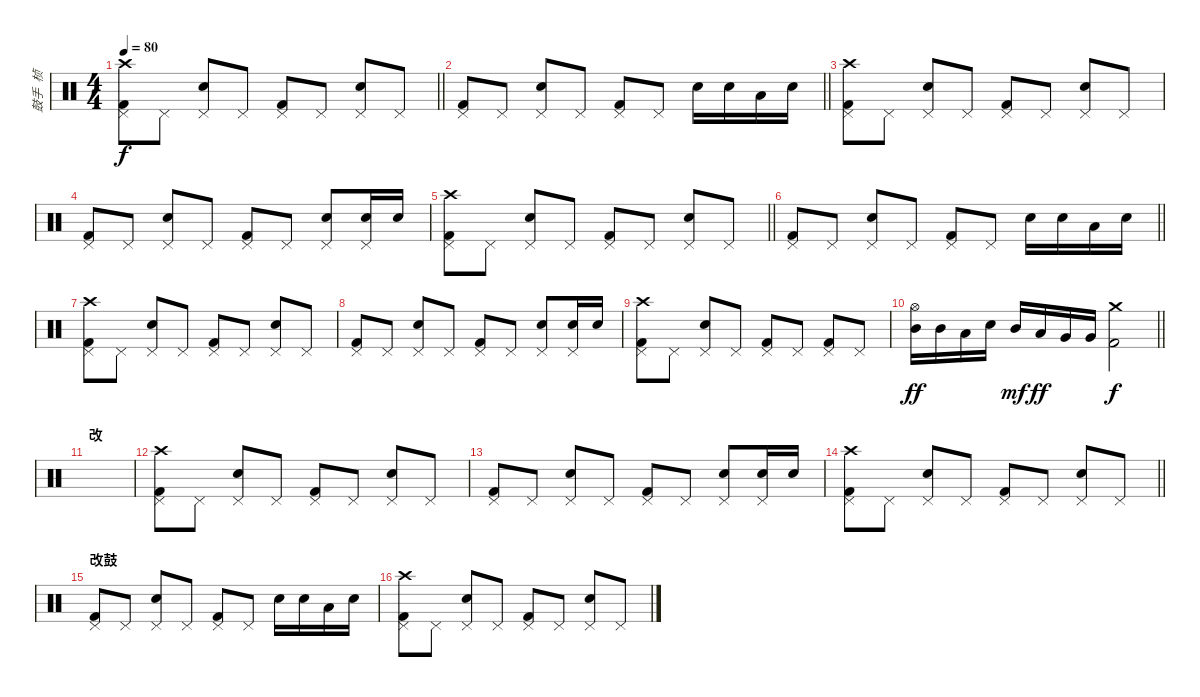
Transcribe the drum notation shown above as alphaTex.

\track ("鼓手  桢" "鼓手  桢") {instrument percussion}
\staff {score}
\articulation defaults
\ts (4 4)
\tempo 80
\clef neutral
\barLineRight lightlight
\ks c
("Pedal Hi-Hat (hit)" "Kick (hit) 2" "Crash high (hit)").8{dy f} "Pedal Hi-Hat (hit)".8 ("Pedal Hi-Hat (hit)" "Snare (hit) 2").8 "Pedal Hi-Hat (hit)".8 ("Pedal Hi-Hat (hit)" "Kick (hit) 2").8 "Pedal Hi-Hat (hit)".8 ("Pedal Hi-Hat (hit)" "Snare (hit) 2").8 "Pedal Hi-Hat (hit)".8 |
\barLineRight lightlight
("Pedal Hi-Hat (hit)" "Kick (hit) 2").8 "Pedal Hi-Hat (hit)".8 ("Pedal Hi-Hat (hit)" "Snare (hit) 2").8 "Pedal Hi-Hat (hit)".8 ("Pedal Hi-Hat (hit)" "Kick (hit) 2").8 "Pedal Hi-Hat (hit)".8 "Snare (hit) 2".16 "Snare (hit) 2".16 "Low Tom (hit)".16 "Snare (hit) 2".16 |
("Pedal Hi-Hat (hit)" "Kick (hit) 2" "Crash high (hit)").8 "Pedal Hi-Hat (hit)".8 ("Pedal Hi-Hat (hit)" "Snare (hit) 2").8 "Pedal Hi-Hat (hit)".8 ("Pedal Hi-Hat (hit)" "Kick (hit) 2").8 "Pedal Hi-Hat (hit)".8 ("Pedal Hi-Hat (hit)" "Snare (hit) 2").8 "Pedal Hi-Hat (hit)".8 |
("Pedal Hi-Hat (hit)" "Kick (hit) 2").8 "Pedal Hi-Hat (hit)".8 ("Pedal Hi-Hat (hit)" "Snare (hit) 2").8 "Pedal Hi-Hat (hit)".8 ("Pedal Hi-Hat (hit)" "Kick (hit) 2").8 "Pedal Hi-Hat (hit)".8 ("Pedal Hi-Hat (hit)" "Snare (hit) 2").8 ("Pedal Hi-Hat (hit)" "Snare (hit) 2").16 "Snare (hit) 2".16 |
\barLineRight lightlight
("Pedal Hi-Hat (hit)" "Kick (hit) 2" "Crash high (hit)").8 "Pedal Hi-Hat (hit)".8 ("Pedal Hi-Hat (hit)" "Snare (hit) 2").8 "Pedal Hi-Hat (hit)".8 ("Pedal Hi-Hat (hit)" "Kick (hit) 2").8 "Pedal Hi-Hat (hit)".8 ("Pedal Hi-Hat (hit)" "Snare (hit) 2").8 "Pedal Hi-Hat (hit)".8 |
\barLineRight lightlight
("Pedal Hi-Hat (hit)" "Kick (hit) 2").8 "Pedal Hi-Hat (hit)".8 ("Pedal Hi-Hat (hit)" "Snare (hit) 2").8 "Pedal Hi-Hat (hit)".8 ("Pedal Hi-Hat (hit)" "Kick (hit) 2").8 "Pedal Hi-Hat (hit)".8 "Snare (hit) 2".16 "Snare (hit) 2".16 "Low Tom (hit)".16 "Snare (hit) 2".16 |
("Pedal Hi-Hat (hit)" "Kick (hit) 2" "Crash high (hit)").8 "Pedal Hi-Hat (hit)".8 ("Pedal Hi-Hat (hit)" "Snare (hit) 2").8 "Pedal Hi-Hat (hit)".8 ("Pedal Hi-Hat (hit)" "Kick (hit) 2").8 "Pedal Hi-Hat (hit)".8 ("Pedal Hi-Hat (hit)" "Snare (hit) 2").8 "Pedal Hi-Hat (hit)".8 |
("Pedal Hi-Hat (hit)" "Kick (hit) 2").8 "Pedal Hi-Hat (hit)".8 ("Pedal Hi-Hat (hit)" "Snare (hit) 2").8 "Pedal Hi-Hat (hit)".8 ("Pedal Hi-Hat (hit)" "Kick (hit) 2").8 "Pedal Hi-Hat (hit)".8 ("Pedal Hi-Hat (hit)" "Snare (hit) 2").8 ("Pedal Hi-Hat (hit)" "Snare (hit) 2").16 "Snare (hit) 2".16 |
("Pedal Hi-Hat (hit)" "Kick (hit) 2" "Crash high (hit)").8 "Pedal Hi-Hat (hit)".8 ("Pedal Hi-Hat (hit)" "Snare (hit) 2").8 "Pedal Hi-Hat (hit)".8 ("Pedal Hi-Hat (hit)" "Kick (hit) 2").8 "Pedal Hi-Hat (hit)".8 ("Pedal Hi-Hat (hit)" "Kick (hit) 2").8 "Pedal Hi-Hat (hit)".8 |
\barLineRight lightlight
("Mid Tom (hit)" "Hi-Hat (open)").16{dy ff} "Mid Tom (hit)".16 "Low Floor Tom (hit)".16 "Electric Snare (hit)".16 "Mid Tom (hit)".16{dy mf} "Low Tom (hit)".16{dy ff} "Very Low Tom (hit)".16 "Very Low Tom (hit)".16 ("Crash medium (hit)" "Kick (hit) 2").2{dy f} |
\section ("" "改")
|
("Pedal Hi-Hat (hit)" "Kick (hit) 2" "Crash high (hit)").8 "Pedal Hi-Hat (hit)".8 ("Pedal Hi-Hat (hit)" "Snare (hit) 2").8 "Pedal Hi-Hat (hit)".8 ("Pedal Hi-Hat (hit)" "Kick (hit) 2").8 "Pedal Hi-Hat (hit)".8 ("Pedal Hi-Hat (hit)" "Snare (hit) 2").8 "Pedal Hi-Hat (hit)".8 |
("Pedal Hi-Hat (hit)" "Kick (hit) 2").8 "Pedal Hi-Hat (hit)".8 ("Pedal Hi-Hat (hit)" "Snare (hit) 2").8 "Pedal Hi-Hat (hit)".8 ("Pedal Hi-Hat (hit)" "Kick (hit) 2").8 "Pedal Hi-Hat (hit)".8 ("Pedal Hi-Hat (hit)" "Snare (hit) 2").8 ("Pedal Hi-Hat (hit)" "Snare (hit) 2").16 "Snare (hit) 2".16 |
\barLineRight lightlight
("Pedal Hi-Hat (hit)" "Kick (hit) 2" "Crash high (hit)").8 "Pedal Hi-Hat (hit)".8 ("Pedal Hi-Hat (hit)" "Snare (hit) 2").8 "Pedal Hi-Hat (hit)".8 ("Pedal Hi-Hat (hit)" "Kick (hit) 2").8 "Pedal Hi-Hat (hit)".8 ("Pedal Hi-Hat (hit)" "Snare (hit) 2").8 "Pedal Hi-Hat (hit)".8 |
\section ("" "改鼓")
("Pedal Hi-Hat (hit)" "Kick (hit) 2").8 "Pedal Hi-Hat (hit)".8 ("Pedal Hi-Hat (hit)" "Snare (hit) 2").8 "Pedal Hi-Hat (hit)".8 ("Pedal Hi-Hat (hit)" "Kick (hit) 2").8 "Pedal Hi-Hat (hit)".8 "Snare (hit) 2".16 "Snare (hit) 2".16 "Low Tom (hit)".16 "Snare (hit) 2".16 |
("Pedal Hi-Hat (hit)" "Kick (hit) 2" "Crash high (hit)").8 "Pedal Hi-Hat (hit)".8 ("Pedal Hi-Hat (hit)" "Snare (hit) 2").8 "Pedal Hi-Hat (hit)".8 ("Pedal Hi-Hat (hit)" "Kick (hit) 2").8 "Pedal Hi-Hat (hit)".8 ("Pedal Hi-Hat (hit)" "Snare (hit) 2").8 "Pedal Hi-Hat (hit)".8
